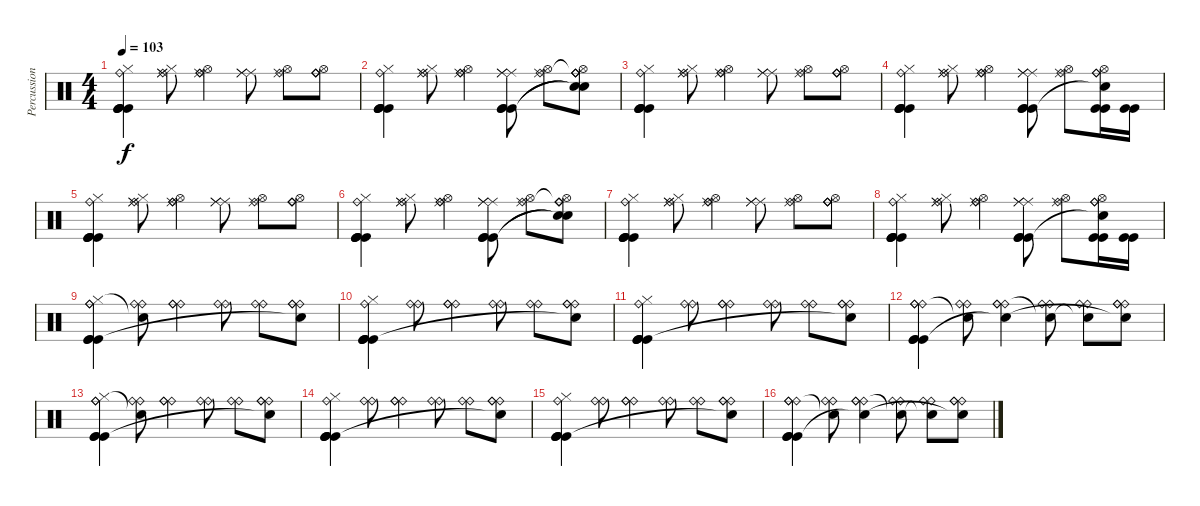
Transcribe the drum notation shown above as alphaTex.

\track ("Percussion" "Percussion") {instrument percussion}
\staff {score}
\articulation defaults
\ts (4 4)
\tempo 103
\clef neutral
\ks c
("Kick (hit)" "Ride (bell)" "Hi-Hat (closed)" "Kick (hit)" "Kick (hit)" "Kick (hit)").4{dy f} ("Ride (middle)" "Ride (bell)" "Hi-Hat (closed)" "Ride (middle)").8 ("Ride (bell)" "Ride (bell)" "Ride (middle)" "Hi-Hat (open)").4 ("Ride (middle)" "Ride (middle)" "Ride (middle)").8 ("Ride (bell)" "Ride (middle)" "Hi-Hat (open)").8 ("Ride (bell)" "Ride (bell)" "Ride (bell)" "Hi-Hat (open)").8 |
("Kick (hit)" "Ride (bell)" "Hi-Hat (closed)" "Kick (hit)" "Kick (hit)" "Kick (hit)").4 ("Ride (middle)" "Ride (bell)" "Hi-Hat (closed)" "Ride (middle)").8 ("Ride (bell)" "Ride (bell)" "Ride (middle)" "Hi-Hat (open)").4 ("Kick (hit)" "Ride (middle)" "Ride (middle)" "Ride (middle)" "Kick (hit)" "Kick (hit)").8 ("Ride (bell)" "Ride (middle)" "Hi-Hat (open)").8 ("Ride (bell)"{t} "Ride (bell)" "Ride (bell)" "Hi-Hat (open)" "Snare (hit)"{t} "Snare (hit)"{t}).8 |
("Kick (hit)" "Ride (bell)" "Hi-Hat (closed)" "Kick (hit)" "Kick (hit)" "Kick (hit)").4 ("Ride (middle)" "Ride (bell)" "Hi-Hat (closed)" "Ride (middle)").8 ("Ride (bell)" "Ride (bell)" "Ride (middle)" "Hi-Hat (open)").4 ("Ride (middle)" "Ride (middle)" "Ride (middle)").8 ("Ride (bell)" "Ride (middle)" "Hi-Hat (open)").8 ("Ride (bell)" "Ride (bell)" "Ride (bell)" "Hi-Hat (open)").8 |
("Kick (hit)" "Ride (bell)" "Hi-Hat (closed)" "Kick (hit)" "Kick (hit)" "Kick (hit)").4 ("Ride (middle)" "Ride (bell)" "Hi-Hat (closed)" "Ride (middle)").8 ("Ride (bell)" "Ride (bell)" "Ride (middle)" "Hi-Hat (open)").4 ("Kick (hit)" "Ride (middle)" "Ride (middle)" "Ride (middle)" "Kick (hit)" "Kick (hit)").8 ("Ride (bell)" "Ride (middle)" "Hi-Hat (open)").8 ("Kick (hit)" "Ride (bell)" "Ride (bell)" "Hi-Hat (open)" "Snare (hit)"{t} "Kick (hit)").16 ("Kick (hit)" "Kick (hit)").16 |
("Kick (hit)" "Ride (bell)" "Hi-Hat (closed)" "Kick (hit)" "Kick (hit)" "Kick (hit)").4 ("Ride (middle)" "Ride (bell)" "Hi-Hat (closed)" "Ride (middle)").8 ("Ride (bell)" "Ride (bell)" "Ride (middle)" "Hi-Hat (open)").4 ("Ride (middle)" "Ride (middle)" "Ride (middle)").8 ("Ride (bell)" "Ride (middle)" "Hi-Hat (open)").8 ("Ride (bell)" "Ride (bell)" "Ride (bell)" "Hi-Hat (open)").8 |
("Kick (hit)" "Ride (bell)" "Hi-Hat (closed)" "Kick (hit)" "Kick (hit)" "Kick (hit)").4 ("Ride (middle)" "Ride (bell)" "Hi-Hat (closed)" "Ride (middle)").8 ("Ride (bell)" "Ride (bell)" "Ride (middle)" "Hi-Hat (open)").4 ("Kick (hit)" "Ride (middle)" "Ride (middle)" "Ride (middle)" "Kick (hit)" "Kick (hit)").8 ("Ride (bell)" "Ride (middle)" "Hi-Hat (open)").8 ("Ride (bell)"{t} "Ride (bell)" "Ride (bell)" "Hi-Hat (open)" "Snare (hit)"{t} "Snare (hit)"{t}).8 |
("Kick (hit)" "Ride (bell)" "Hi-Hat (closed)" "Kick (hit)" "Kick (hit)" "Kick (hit)").4 ("Ride (middle)" "Ride (bell)" "Hi-Hat (closed)" "Ride (middle)").8 ("Ride (bell)" "Ride (bell)" "Ride (middle)" "Hi-Hat (open)").4 ("Ride (middle)" "Ride (middle)" "Ride (middle)").8 ("Ride (bell)" "Ride (middle)" "Hi-Hat (open)").8 ("Ride (bell)" "Ride (bell)" "Ride (bell)" "Hi-Hat (open)").8 |
("Kick (hit)" "Ride (bell)" "Hi-Hat (closed)" "Kick (hit)" "Kick (hit)" "Kick (hit)").4 ("Ride (middle)" "Ride (bell)" "Hi-Hat (closed)" "Ride (middle)").8 ("Ride (bell)" "Ride (bell)" "Ride (middle)" "Hi-Hat (open)").4 ("Kick (hit)" "Ride (middle)" "Ride (middle)" "Ride (middle)" "Kick (hit)" "Kick (hit)").8 ("Ride (bell)" "Ride (middle)" "Hi-Hat (open)").8 ("Kick (hit)" "Ride (bell)" "Ride (bell)" "Hi-Hat (open)" "Snare (hit)"{t} "Kick (hit)").16 ("Kick (hit)" "Kick (hit)").16 |
("Kick (hit)" "Ride (bell)" "Hi-Hat (closed)" "Kick (hit)" "Ride (bell)" "Kick (hit)").4 ("Ride (bell)" "Ride (bell)" "Snare (hit)"{t}).8 ("Ride (bell)" "Ride (bell)" "Ride (bell)").4 ("Ride (bell)" "Ride (bell)").8 ("Ride (bell)" "Ride (bell)").8 ("Ride (bell)" "Ride (bell)" "Ride (bell)" "Snare (hit)"{t}).8 |
("Kick (hit)" "Ride (bell)" "Hi-Hat (closed)" "Kick (hit)" "Kick (hit)" "Kick (hit)").4 ("Ride (bell)" "Ride (bell)").8 ("Ride (bell)" "Ride (bell)" "Ride (bell)").4 ("Ride (bell)" "Ride (bell)").8 ("Ride (bell)" "Ride (bell)").8 ("Ride (bell)" "Ride (bell)" "Ride (bell)" "Snare (hit)"{t}).8 |
("Kick (hit)" "Ride (bell)" "Hi-Hat (closed)" "Kick (hit)" "Kick (hit)" "Kick (hit)").4 ("Ride (bell)" "Ride (bell)").8 ("Ride (bell)" "Ride (bell)" "Ride (bell)").4 ("Ride (bell)" "Ride (bell)").8 ("Ride (bell)" "Ride (bell)").8 ("Ride (bell)" "Ride (bell)" "Ride (bell)" "Snare (hit)"{t}).8 |
("Kick (hit)" "Ride (bell)" "Ride (bell)" "Kick (hit)" "Ride (bell)" "Kick (hit)").4 ("Ride (bell)" "Ride (bell)" "Snare (hit)"{t}).8 ("Ride (bell)" "Ride (bell)" "Ride (bell)" "Snare (hit)"{t}).4 ("Ride (bell)" "Ride (bell)" "Snare (hit)"{t}).8 ("Ride (bell)" "Ride (bell)" "Snare (hit)"{t}).8 ("Ride (bell)" "Ride (bell)" "Ride (bell)" "Snare (hit)"{t}).8 |
("Kick (hit)" "Ride (bell)" "Hi-Hat (closed)" "Kick (hit)" "Ride (bell)" "Kick (hit)").4 ("Ride (bell)" "Ride (bell)" "Snare (hit)"{t}).8 ("Ride (bell)" "Ride (bell)" "Ride (bell)").4 ("Ride (bell)" "Ride (bell)").8 ("Ride (bell)" "Ride (bell)").8 ("Ride (bell)" "Ride (bell)" "Ride (bell)" "Snare (hit)"{t}).8 |
("Kick (hit)" "Ride (bell)" "Hi-Hat (closed)" "Kick (hit)" "Kick (hit)" "Kick (hit)").4 ("Ride (bell)" "Ride (bell)").8 ("Ride (bell)" "Ride (bell)" "Ride (bell)").4 ("Ride (bell)" "Ride (bell)").8 ("Ride (bell)" "Ride (bell)").8 ("Ride (bell)" "Ride (bell)" "Ride (bell)" "Snare (hit)"{t}).8 |
("Kick (hit)" "Ride (bell)" "Hi-Hat (closed)" "Kick (hit)" "Kick (hit)" "Kick (hit)").4 ("Ride (bell)" "Ride (bell)").8 ("Ride (bell)" "Ride (bell)" "Ride (bell)").4 ("Ride (bell)" "Ride (bell)").8 ("Ride (bell)" "Ride (bell)").8 ("Ride (bell)" "Ride (bell)" "Ride (bell)" "Snare (hit)"{t}).8 |
("Kick (hit)" "Ride (bell)" "Ride (bell)" "Kick (hit)" "Ride (bell)" "Kick (hit)").4 ("Ride (bell)" "Ride (bell)" "Snare (hit)"{t}).8 ("Ride (bell)" "Ride (bell)" "Ride (bell)" "Snare (hit)"{t}).4 ("Ride (bell)" "Ride (bell)" "Snare (hit)"{t}).8 ("Ride (bell)" "Ride (bell)" "Snare (hit)"{t}).8 ("Ride (bell)" "Ride (bell)" "Ride (bell)" "Snare (hit)"{t}).8
